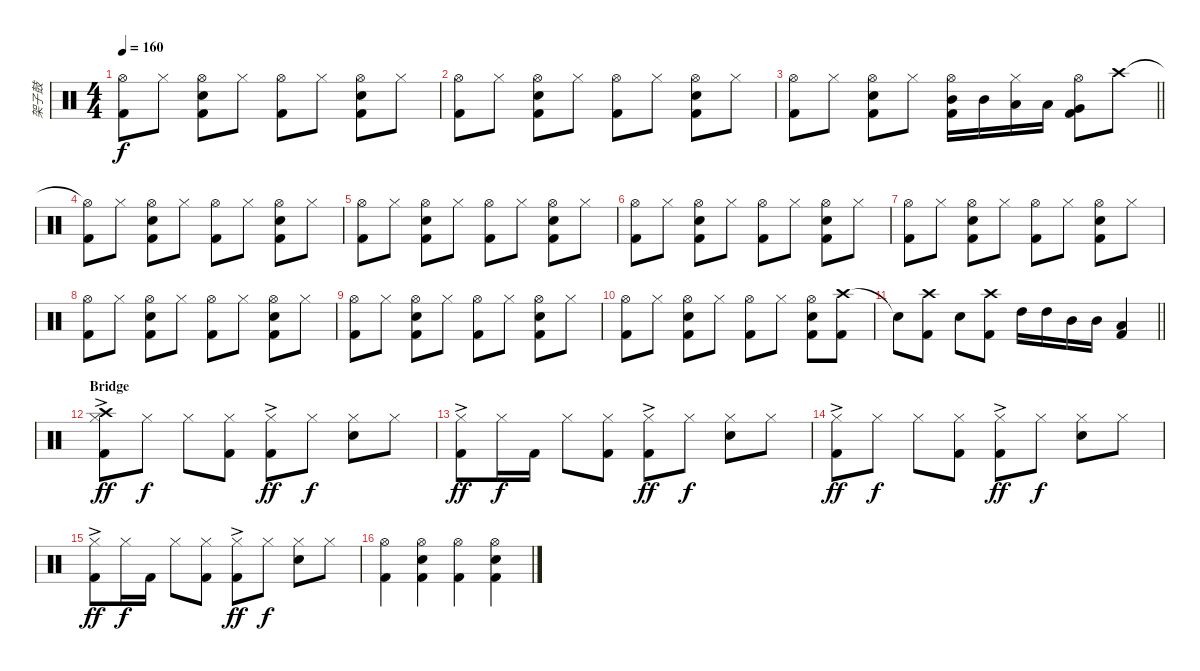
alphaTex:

\track ("架子鼓" "架子鼓") {instrument percussion}
\staff {score}
\articulation defaults
\ts (4 4)
\tempo 160
\clef neutral
\ks c
("Hi-Hat (open)" "Kick (hit) 2").8{dy f} "Hi-Hat (closed)".8 ("Hi-Hat (open)" "Snare (hit) 2" "Kick (hit) 2").8 "Hi-Hat (closed)".8 ("Hi-Hat (open)" "Kick (hit) 2").8 "Hi-Hat (closed)".8 ("Hi-Hat (open)" "Snare (hit) 2" "Kick (hit) 2").8 "Hi-Hat (closed)".8 |
("Hi-Hat (open)" "Kick (hit) 2").8 "Hi-Hat (closed)".8 ("Hi-Hat (open)" "Snare (hit) 2" "Kick (hit) 2").8 "Hi-Hat (closed)".8 ("Hi-Hat (open)" "Kick (hit) 2").8 "Hi-Hat (closed)".8 ("Hi-Hat (open)" "Snare (hit) 2" "Kick (hit) 2").8 "Hi-Hat (closed)".8 |
\barLineRight lightlight
("Hi-Hat (open)" "Kick (hit) 2").8 "Hi-Hat (closed)".8 ("Hi-Hat (open)" "Snare (hit) 2" "Kick (hit) 2").8 "Hi-Hat (closed)".8 ("Hi-Hat (open)" "Mid Tom (hit)" "Kick (hit) 2").16 "Mid Tom (hit)".16 ("Hi-Hat (closed)" "Low Tom (hit)").16 "Low Tom (hit)".16 ("Hi-Hat (open)" "Very Low Tom (hit)" "Kick (hit) 2").8 "Crash high (hit)".8 |
("Hi-Hat (open)"{t} "Kick (hit) 2").8 "Hi-Hat (closed)".8 ("Hi-Hat (open)" "Snare (hit) 2" "Kick (hit) 2").8 "Hi-Hat (closed)".8 ("Hi-Hat (open)" "Kick (hit) 2").8 "Hi-Hat (closed)".8 ("Hi-Hat (open)" "Snare (hit) 2" "Kick (hit) 2").8 "Hi-Hat (closed)".8 |
("Hi-Hat (open)" "Kick (hit) 2").8 "Hi-Hat (closed)".8 ("Hi-Hat (open)" "Snare (hit) 2" "Kick (hit) 2").8 "Hi-Hat (closed)".8 ("Hi-Hat (open)" "Kick (hit) 2").8 "Hi-Hat (closed)".8 ("Hi-Hat (open)" "Snare (hit) 2" "Kick (hit) 2").8 "Hi-Hat (closed)".8 |
("Hi-Hat (open)" "Kick (hit) 2").8 "Hi-Hat (closed)".8 ("Hi-Hat (open)" "Snare (hit) 2" "Kick (hit) 2").8 "Hi-Hat (closed)".8 ("Hi-Hat (open)" "Kick (hit) 2").8 "Hi-Hat (closed)".8 ("Hi-Hat (open)" "Snare (hit) 2" "Kick (hit) 2").8 "Hi-Hat (closed)".8 |
("Hi-Hat (open)" "Kick (hit) 2").8 "Hi-Hat (closed)".8 ("Hi-Hat (open)" "Snare (hit) 2" "Kick (hit) 2").8 "Hi-Hat (closed)".8 ("Hi-Hat (open)" "Kick (hit) 2").8 "Hi-Hat (closed)".8 ("Hi-Hat (open)" "Snare (hit) 2" "Kick (hit) 2").8 "Hi-Hat (closed)".8 |
("Hi-Hat (open)" "Kick (hit) 2").8 "Hi-Hat (closed)".8 ("Hi-Hat (open)" "Snare (hit) 2" "Kick (hit) 2").8 "Hi-Hat (closed)".8 ("Hi-Hat (open)" "Kick (hit) 2").8 "Hi-Hat (closed)".8 ("Hi-Hat (open)" "Snare (hit) 2" "Kick (hit) 2").8 "Hi-Hat (closed)".8 |
("Hi-Hat (open)" "Kick (hit) 2").8 "Hi-Hat (closed)".8 ("Hi-Hat (open)" "Snare (hit) 2" "Kick (hit) 2").8 "Hi-Hat (closed)".8 ("Hi-Hat (open)" "Kick (hit) 2").8 "Hi-Hat (closed)".8 ("Hi-Hat (open)" "Snare (hit) 2" "Kick (hit) 2").8 "Hi-Hat (closed)".8 |
("Hi-Hat (open)" "Kick (hit) 2").8 "Hi-Hat (closed)".8 ("Hi-Hat (open)" "Snare (hit) 2" "Kick (hit) 2").8 "Hi-Hat (closed)".8 ("Hi-Hat (open)" "Kick (hit) 2").8 "Hi-Hat (closed)".8 ("Hi-Hat (open)" "Snare (hit) 2" "Kick (hit) 2").8 ("Crash high (hit)" "Kick (hit) 2").8 |
\barLineRight lightlight "Snare (hit)"{t}.8
("Crash high (hit)" "Kick (hit) 2").8 "Snare (hit) 2".8 ("Crash high (hit)" "Kick (hit) 2").8 "High Tom (hit)".16 "High Tom (hit)".16 "Mid Tom (hit)".16 "Mid Tom (hit)".16 ("Low Tom (hit)" "Kick (hit) 2").4 |
\section ("" "Bridge")
("Hi-Hat (closed)"{ac} "Crash high (hit)" "Kick (hit) 2").8{dy ff} "Hi-Hat (closed)".8{dy f} "Hi-Hat (closed)".8 ("Hi-Hat (closed)" "Kick (hit) 2").8 ("Hi-Hat (closed)"{ac} "Kick (hit) 2").8{dy ff} "Hi-Hat (closed)".8{dy f} ("Hi-Hat (closed)" "Snare (hit) 2").8 "Hi-Hat (closed)".8 |
("Hi-Hat (closed)"{ac} "Kick (hit) 2").8{dy ff} "Hi-Hat (closed)".16{dy f} "Kick (hit) 2".16 "Hi-Hat (closed)".8 ("Hi-Hat (closed)" "Kick (hit) 2").8 ("Hi-Hat (closed)"{ac} "Kick (hit) 2").8{dy ff} "Hi-Hat (closed)".8{dy f} ("Hi-Hat (closed)" "Snare (hit) 2").8 "Hi-Hat (closed)".8 |
("Hi-Hat (closed)"{ac} "Kick (hit) 2").8{dy ff} "Hi-Hat (closed)".8{dy f} "Hi-Hat (closed)".8 ("Hi-Hat (closed)" "Kick (hit) 2").8 ("Hi-Hat (closed)"{ac} "Kick (hit) 2").8{dy ff} "Hi-Hat (closed)".8{dy f} ("Hi-Hat (closed)" "Snare (hit) 2").8 "Hi-Hat (closed)".8 |
("Hi-Hat (closed)"{ac} "Kick (hit) 2").8{dy ff} "Hi-Hat (closed)".16{dy f} "Kick (hit) 2".16 "Hi-Hat (closed)".8 ("Hi-Hat (closed)" "Kick (hit) 2").8 ("Hi-Hat (closed)"{ac} "Kick (hit) 2").8{dy ff} "Hi-Hat (closed)".8{dy f} ("Hi-Hat (closed)" "Snare (hit) 2").8 "Hi-Hat (closed)".8 |
("Hi-Hat (open)" "Kick (hit) 2").4 ("Hi-Hat (open)" "Snare (hit) 2" "Kick (hit) 2").4 ("Hi-Hat (open)" "Kick (hit) 2").4 ("Hi-Hat (open)" "Snare (hit) 2" "Kick (hit) 2").4
